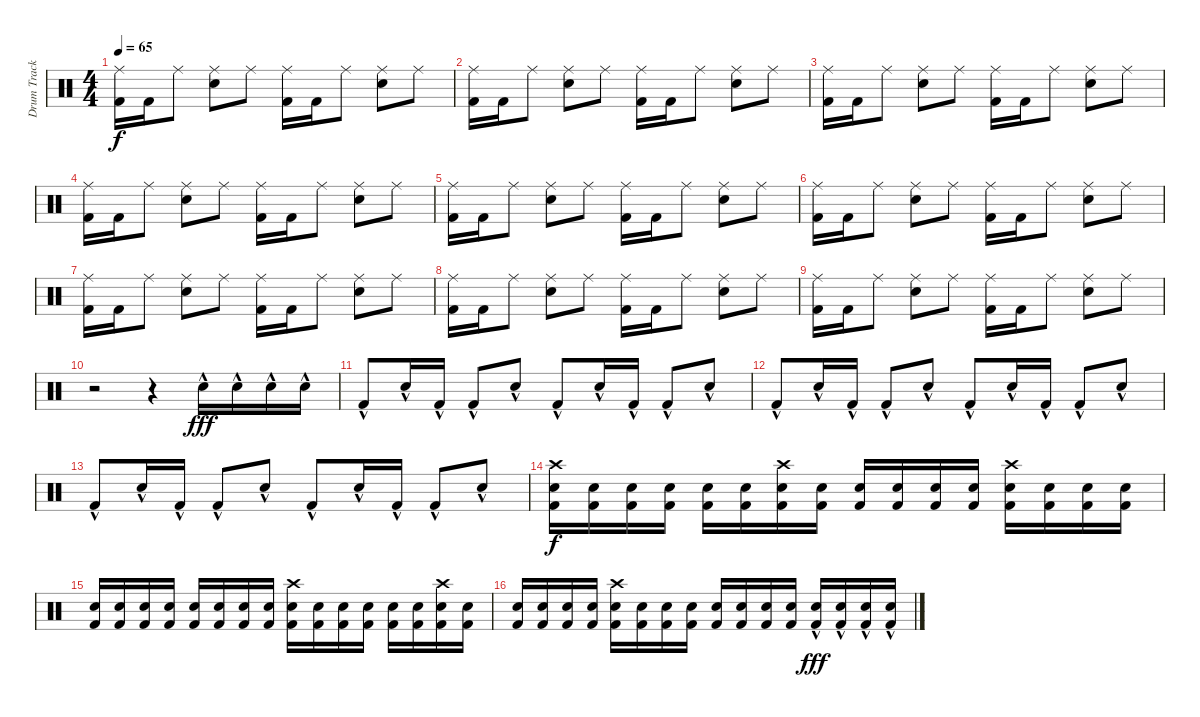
\track ("Drum Track" "Drum Track") {instrument percussion}
\staff {score}
\articulation defaults
\ts (4 4)
\tempo 65
\clef neutral
\ks c
("Ride (middle)" "Kick (hit) 2").16{dy f} "Kick (hit) 2".16 "Ride (middle)".8 ("Ride (middle)" "Electric Snare (hit)").8 "Ride (middle)".8 ("Ride (middle)" "Kick (hit) 2").16 "Kick (hit) 2".16 "Ride (middle)".8 ("Ride (middle)" "Electric Snare (hit)").8 "Ride (middle)".8 |
("Ride (middle)" "Kick (hit) 2").16 "Kick (hit) 2".16 "Ride (middle)".8 ("Ride (middle)" "Electric Snare (hit)").8 "Ride (middle)".8 ("Ride (middle)" "Kick (hit) 2").16 "Kick (hit) 2".16 "Ride (middle)".8 ("Ride (middle)" "Electric Snare (hit)").8 "Ride (middle)".8 |
("Ride (middle)" "Kick (hit) 2").16 "Kick (hit) 2".16 "Ride (middle)".8 ("Ride (middle)" "Electric Snare (hit)").8 "Ride (middle)".8 ("Ride (middle)" "Kick (hit) 2").16 "Kick (hit) 2".16 "Ride (middle)".8 ("Ride (middle)" "Electric Snare (hit)").8 "Ride (middle)".8 |
("Ride (middle)" "Kick (hit) 2").16 "Kick (hit) 2".16 "Ride (middle)".8 ("Ride (middle)" "Electric Snare (hit)").8 "Ride (middle)".8 ("Ride (middle)" "Kick (hit) 2").16 "Kick (hit) 2".16 "Ride (middle)".8 ("Ride (middle)" "Electric Snare (hit)").8 "Ride (middle)".8 |
("Ride (middle)" "Kick (hit) 2").16 "Kick (hit) 2".16 "Ride (middle)".8 ("Ride (middle)" "Electric Snare (hit)").8 "Ride (middle)".8 ("Ride (middle)" "Kick (hit) 2").16 "Kick (hit) 2".16 "Ride (middle)".8 ("Ride (middle)" "Electric Snare (hit)").8 "Ride (middle)".8 |
("Ride (middle)" "Kick (hit) 2").16 "Kick (hit) 2".16 "Ride (middle)".8 ("Ride (middle)" "Electric Snare (hit)").8 "Ride (middle)".8 ("Ride (middle)" "Kick (hit) 2").16 "Kick (hit) 2".16 "Ride (middle)".8 ("Ride (middle)" "Electric Snare (hit)").8 "Ride (middle)".8 |
("Ride (middle)" "Kick (hit) 2").16 "Kick (hit) 2".16 "Ride (middle)".8 ("Ride (middle)" "Electric Snare (hit)").8 "Ride (middle)".8 ("Ride (middle)" "Kick (hit) 2").16 "Kick (hit) 2".16 "Ride (middle)".8 ("Ride (middle)" "Electric Snare (hit)").8 "Ride (middle)".8 |
("Ride (middle)" "Kick (hit) 2").16 "Kick (hit) 2".16 "Ride (middle)".8 ("Ride (middle)" "Electric Snare (hit)").8 "Ride (middle)".8 ("Ride (middle)" "Kick (hit) 2").16 "Kick (hit) 2".16 "Ride (middle)".8 ("Ride (middle)" "Electric Snare (hit)").8 "Ride (middle)".8 |
("Ride (middle)" "Kick (hit) 2").16 "Kick (hit) 2".16 "Ride (middle)".8 ("Ride (middle)" "Electric Snare (hit)").8 "Ride (middle)".8 ("Ride (middle)" "Kick (hit) 2").16 "Kick (hit) 2".16 "Ride (middle)".8 ("Ride (middle)" "Electric Snare (hit)").8 "Ride (middle)".8 |
r.2 r.4 "Electric Snare (hit)"{hac}.16{dy fff} "Electric Snare (hit)"{hac}.16 "Electric Snare (hit)"{hac}.16 "Electric Snare (hit)"{hac}.16 |
"Kick (hit) 2"{hac}.8 "Electric Snare (hit)"{hac}.16 "Kick (hit) 2"{hac}.16 "Kick (hit) 2"{hac}.8 "Electric Snare (hit)"{hac}.8 "Kick (hit) 2"{hac}.8 "Electric Snare (hit)"{hac}.16 "Kick (hit) 2"{hac}.16 "Kick (hit) 2"{hac}.8 "Electric Snare (hit)"{hac}.8 |
"Kick (hit) 2"{hac}.8 "Electric Snare (hit)"{hac}.16 "Kick (hit) 2"{hac}.16 "Kick (hit) 2"{hac}.8 "Electric Snare (hit)"{hac}.8 "Kick (hit) 2"{hac}.8 "Electric Snare (hit)"{hac}.16 "Kick (hit) 2"{hac}.16 "Kick (hit) 2"{hac}.8 "Electric Snare (hit)"{hac}.8 |
"Kick (hit) 2"{hac}.8 "Electric Snare (hit)"{hac}.16 "Kick (hit) 2"{hac}.16 "Kick (hit) 2"{hac}.8 "Electric Snare (hit)"{hac}.8 "Kick (hit) 2"{hac}.8 "Electric Snare (hit)"{hac}.16 "Kick (hit) 2"{hac}.16 "Kick (hit) 2"{hac}.8 "Electric Snare (hit)"{hac}.8 |
("Crash high (hit)" "Electric Snare (hit)" "Kick (hit) 2").16{dy f} ("Electric Snare (hit)" "Kick (hit) 2").16 ("Electric Snare (hit)" "Kick (hit) 2").16 ("Electric Snare (hit)" "Kick (hit) 2").16 ("Electric Snare (hit)" "Kick (hit) 2").16 ("Electric Snare (hit)" "Kick (hit) 2").16 ("Crash high (hit)" "Electric Snare (hit)" "Kick (hit) 2").16 ("Electric Snare (hit)" "Kick (hit) 2").16 ("Electric Snare (hit)" "Kick (hit) 2").16 ("Electric Snare (hit)" "Kick (hit) 2").16 ("Electric Snare (hit)" "Kick (hit) 2").16 ("Electric Snare (hit)" "Kick (hit) 2").16 ("Crash high (hit)" "Electric Snare (hit)" "Kick (hit) 2").16 ("Electric Snare (hit)" "Kick (hit) 2").16 ("Electric Snare (hit)" "Kick (hit) 2").16 ("Electric Snare (hit)" "Kick (hit) 2").16 |
("Electric Snare (hit)" "Kick (hit) 2").16 ("Electric Snare (hit)" "Kick (hit) 2").16 ("Electric Snare (hit)" "Kick (hit) 2").16 ("Electric Snare (hit)" "Kick (hit) 2").16 ("Electric Snare (hit)" "Kick (hit) 2").16 ("Electric Snare (hit)" "Kick (hit) 2").16 ("Electric Snare (hit)" "Kick (hit) 2").16 ("Electric Snare (hit)" "Kick (hit) 2").16 ("Crash high (hit)" "Electric Snare (hit)" "Kick (hit) 2").16 ("Electric Snare (hit)" "Kick (hit) 2").16 ("Electric Snare (hit)" "Kick (hit) 2").16 ("Electric Snare (hit)" "Kick (hit) 2").16 ("Electric Snare (hit)" "Kick (hit) 2").16 ("Electric Snare (hit)" "Kick (hit) 2").16 ("Crash high (hit)" "Electric Snare (hit)" "Kick (hit) 2").16 ("Electric Snare (hit)" "Kick (hit) 2").16 |
("Electric Snare (hit)" "Kick (hit) 2").16 ("Electric Snare (hit)" "Kick (hit) 2").16 ("Electric Snare (hit)" "Kick (hit) 2").16 ("Electric Snare (hit)" "Kick (hit) 2").16 ("Crash high (hit)" "Electric Snare (hit)" "Kick (hit) 2").16 ("Electric Snare (hit)" "Kick (hit) 2").16 ("Electric Snare (hit)" "Kick (hit) 2").16 ("Electric Snare (hit)" "Kick (hit) 2").16 ("Electric Snare (hit)" "Kick (hit) 2").16 ("Electric Snare (hit)" "Kick (hit) 2").16 ("Electric Snare (hit)" "Kick (hit) 2").16 ("Electric Snare (hit)" "Kick (hit) 2").16 ("Electric Snare (hit)"{hac} "Kick (hit) 2"{hac}).16{dy fff} ("Electric Snare (hit)"{hac} "Kick (hit) 2"{hac}).16 ("Electric Snare (hit)"{hac} "Kick (hit) 2"{hac}).16 ("Electric Snare (hit)"{hac} "Kick (hit) 2"{hac}).16
